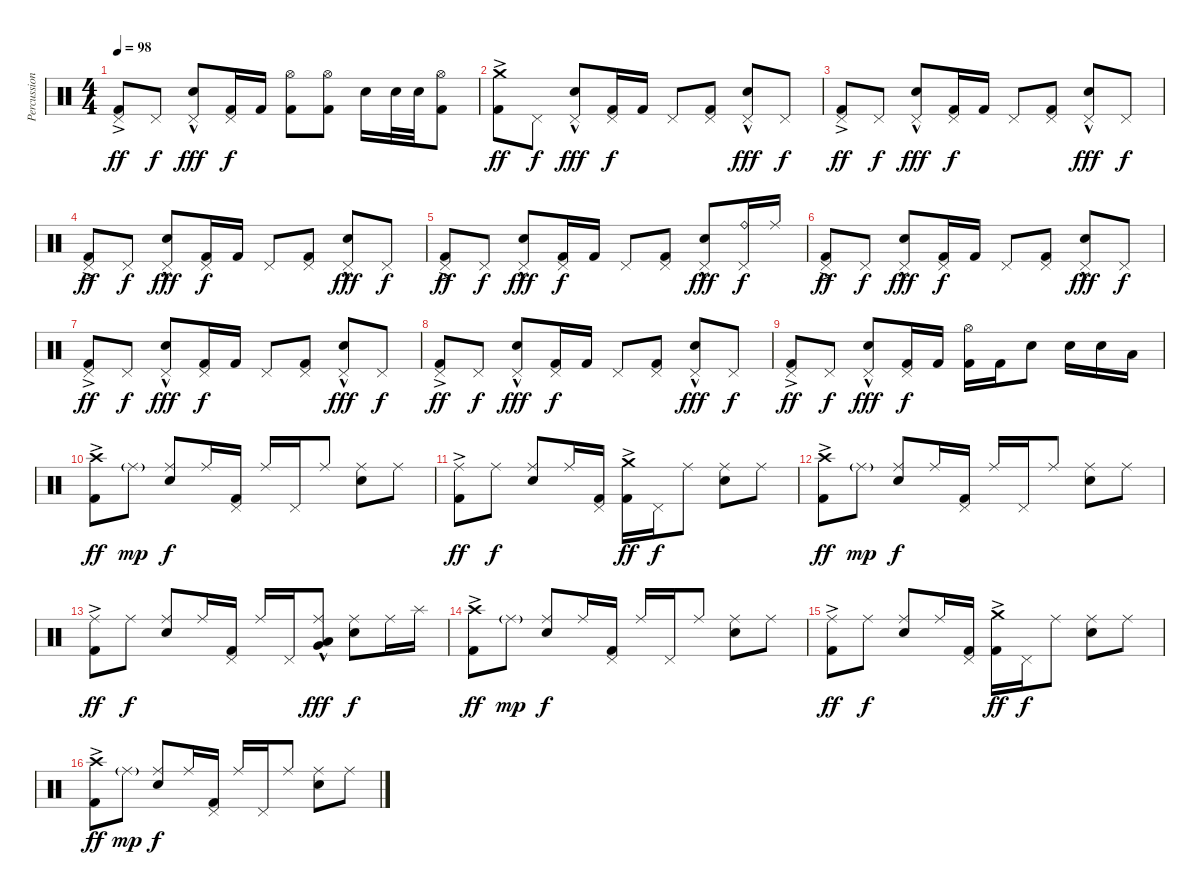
\track ("Percussion" "Percussion") {instrument percussion}
\staff {score}
\articulation defaults
\ts (4 4)
\tempo 98
\clef neutral
\ks c
("Pedal Hi-Hat (hit)"{ac} "Kick (hit) 2").8{dy ff} "Pedal Hi-Hat (hit)".8{dy f} ("Pedal Hi-Hat (hit)"{hac} "Electric Snare (hit)").8{dy fff} ("Pedal Hi-Hat (hit)" "Kick (hit) 2").16{dy f} "Kick (hit) 2".16 ("Hi-Hat (open)" "Kick (hit) 2").8 ("Hi-Hat (open)" "Kick (hit) 2").8 "Electric Snare (hit)".16 "Electric Snare (hit)".32 "Electric Snare (hit)".32 ("Hi-Hat (open)" "Kick (hit) 2").8 |
("Crash medium (hit)" "Kick (hit) 2"{ac}).8{dy ff} "Pedal Hi-Hat (hit)".8{dy f} ("Pedal Hi-Hat (hit)"{hac} "Electric Snare (hit)").8{dy fff} ("Pedal Hi-Hat (hit)" "Kick (hit) 2").16{dy f} "Kick (hit) 2".16 "Pedal Hi-Hat (hit)".8 ("Pedal Hi-Hat (hit)" "Kick (hit) 2").8 ("Pedal Hi-Hat (hit)"{hac} "Electric Snare (hit)").8{dy fff} "Pedal Hi-Hat (hit)".8{dy f} |
("Pedal Hi-Hat (hit)"{ac} "Kick (hit) 2").8{dy ff} "Pedal Hi-Hat (hit)".8{dy f} ("Pedal Hi-Hat (hit)"{hac} "Electric Snare (hit)").8{dy fff} ("Pedal Hi-Hat (hit)" "Kick (hit) 2").16{dy f} "Kick (hit) 2".16 "Pedal Hi-Hat (hit)".8 ("Pedal Hi-Hat (hit)" "Kick (hit) 2").8 ("Pedal Hi-Hat (hit)"{hac} "Electric Snare (hit)").8{dy fff} "Pedal Hi-Hat (hit)".8{dy f} |
("Pedal Hi-Hat (hit)"{ac} "Kick (hit) 2").8{dy ff} "Pedal Hi-Hat (hit)".8{dy f} ("Pedal Hi-Hat (hit)"{hac} "Electric Snare (hit)").8{dy fff} ("Pedal Hi-Hat (hit)" "Kick (hit) 2").16{dy f} "Kick (hit) 2".16 "Pedal Hi-Hat (hit)".8 ("Pedal Hi-Hat (hit)" "Kick (hit) 2").8 ("Pedal Hi-Hat (hit)"{hac} "Electric Snare (hit)").8{dy fff} "Pedal Hi-Hat (hit)".8{dy f} |
("Pedal Hi-Hat (hit)"{ac} "Kick (hit) 2").8{dy ff} "Pedal Hi-Hat (hit)".8{dy f} ("Pedal Hi-Hat (hit)"{hac} "Electric Snare (hit)").8{dy fff} ("Pedal Hi-Hat (hit)" "Kick (hit) 2").16{dy f} "Kick (hit) 2".16 "Pedal Hi-Hat (hit)".8 ("Pedal Hi-Hat (hit)" "Kick (hit) 2").8 ("Pedal Hi-Hat (hit)"{hac} "Electric Snare (hit)").8{dy fff} ("Pedal Hi-Hat (hit)" "Ride (bell)").16{dy f} "Ride (middle)".16 |
("Pedal Hi-Hat (hit)" "Kick (hit) 2"{ac}).8{dy ff} "Pedal Hi-Hat (hit)".8{dy f} ("Pedal Hi-Hat (hit)"{hac} "Electric Snare (hit)").8{dy fff} ("Pedal Hi-Hat (hit)" "Kick (hit) 2").16{dy f} "Kick (hit) 2".16 "Pedal Hi-Hat (hit)".8 ("Pedal Hi-Hat (hit)" "Kick (hit) 2").8 ("Pedal Hi-Hat (hit)"{hac} "Electric Snare (hit)").8{dy fff} "Pedal Hi-Hat (hit)".8{dy f} |
("Pedal Hi-Hat (hit)"{ac} "Kick (hit) 2").8{dy ff} "Pedal Hi-Hat (hit)".8{dy f} ("Pedal Hi-Hat (hit)"{hac} "Electric Snare (hit)").8{dy fff} ("Pedal Hi-Hat (hit)" "Kick (hit) 2").16{dy f} "Kick (hit) 2".16 "Pedal Hi-Hat (hit)".8 ("Pedal Hi-Hat (hit)" "Kick (hit) 2").8 ("Pedal Hi-Hat (hit)"{hac} "Electric Snare (hit)").8{dy fff} "Pedal Hi-Hat (hit)".8{dy f} |
("Pedal Hi-Hat (hit)"{ac} "Kick (hit) 2").8{dy ff} "Pedal Hi-Hat (hit)".8{dy f} ("Pedal Hi-Hat (hit)"{hac} "Electric Snare (hit)").8{dy fff} ("Pedal Hi-Hat (hit)" "Kick (hit) 2").16{dy f} "Kick (hit) 2".16 "Pedal Hi-Hat (hit)".8 ("Pedal Hi-Hat (hit)" "Kick (hit) 2").8 ("Pedal Hi-Hat (hit)"{hac} "Electric Snare (hit)").8{dy fff} "Pedal Hi-Hat (hit)".8{dy f} |
("Pedal Hi-Hat (hit)"{ac} "Kick (hit) 2").8{dy ff} "Pedal Hi-Hat (hit)".8{dy f} ("Pedal Hi-Hat (hit)"{hac} "Electric Snare (hit)").8{dy fff} ("Pedal Hi-Hat (hit)" "Kick (hit) 2").16{dy f} "Kick (hit) 2".16 ("Hi-Hat (open)" "Kick (hit) 2").16 "Kick (hit) 2".16 "Electric Snare (hit)".8 "Electric Snare (hit)".16 "Electric Snare (hit)".16 "Low Tom (hit)".16 |
("Crash high (hit)" "Kick (hit) 2"{ac}).8{dy ff} "Ride (middle)"{g}.8{dy mp} ("Ride (middle)" "Electric Snare (hit)").8{dy f} "Ride (middle)".16 ("Pedal Hi-Hat (hit)" "Kick (hit) 2").16 "Ride (middle)".16 "Pedal Hi-Hat (hit)".16 "Ride (middle)".8 ("Ride (middle)" "Electric Snare (hit)").8 "Ride (middle)".8 |
("Ride (middle)" "Kick (hit) 2"{ac}).8{dy ff} "Ride (middle)".8{dy f} ("Ride (middle)" "Electric Snare (hit)").8 "Ride (middle)".16 ("Pedal Hi-Hat (hit)" "Kick (hit) 2").16 ("Crash medium (hit)" "Kick (hit) 2"{ac}).16{dy ff} "Pedal Hi-Hat (hit)".16{dy f} "Ride (middle)".8 ("Ride (middle)" "Electric Snare (hit)").8 "Ride (middle)".8 |
("Crash high (hit)" "Kick (hit) 2"{ac}).8{dy ff} "Ride (middle)"{g}.8{dy mp} ("Ride (middle)" "Electric Snare (hit)").8{dy f} "Ride (middle)".16 ("Pedal Hi-Hat (hit)" "Kick (hit) 2").16 "Ride (middle)".16 "Pedal Hi-Hat (hit)".16 "Ride (middle)".8 ("Ride (middle)" "Electric Snare (hit)").8 "Ride (middle)".8 |
("Ride (middle)" "Kick (hit) 2"{ac}).8{dy ff} "Ride (middle)".8{dy f} ("Ride (middle)" "Electric Snare (hit)").8 "Ride (middle)".16 ("Pedal Hi-Hat (hit)" "Kick (hit) 2").16 "Ride (middle)".16 "Pedal Hi-Hat (hit)".16 ("Ride (middle)" "Low Floor Tom (hit)" "Very Low Tom (hit)"{hac}).8{dy fff} ("Ride (middle)" "Electric Snare (hit)").8{dy f} "Ride (middle)".16 "Splash (hit)".16 |
("Crash high (hit)" "Kick (hit) 2"{ac}).8{dy ff} "Ride (middle)"{g}.8{dy mp} ("Ride (middle)" "Electric Snare (hit)").8{dy f} "Ride (middle)".16 ("Pedal Hi-Hat (hit)" "Kick (hit) 2").16 "Ride (middle)".16 "Pedal Hi-Hat (hit)".16 "Ride (middle)".8 ("Ride (middle)" "Electric Snare (hit)").8 "Ride (middle)".8 |
("Ride (middle)" "Kick (hit) 2"{ac}).8{dy ff} "Ride (middle)".8{dy f} ("Ride (middle)" "Electric Snare (hit)").8 "Ride (middle)".16 ("Pedal Hi-Hat (hit)" "Kick (hit) 2").16 ("Crash medium (hit)" "Kick (hit) 2"{ac}).16{dy ff} "Pedal Hi-Hat (hit)".16{dy f} "Ride (middle)".8 ("Ride (middle)" "Electric Snare (hit)").8 "Ride (middle)".8 |
("Crash high (hit)" "Kick (hit) 2"{ac}).8{dy ff} "Ride (middle)"{g}.8{dy mp} ("Ride (middle)" "Electric Snare (hit)").8{dy f} "Ride (middle)".16 ("Pedal Hi-Hat (hit)" "Kick (hit) 2").16 "Ride (middle)".16 "Pedal Hi-Hat (hit)".16 "Ride (middle)".8 ("Ride (middle)" "Electric Snare (hit)").8 "Ride (middle)".8
